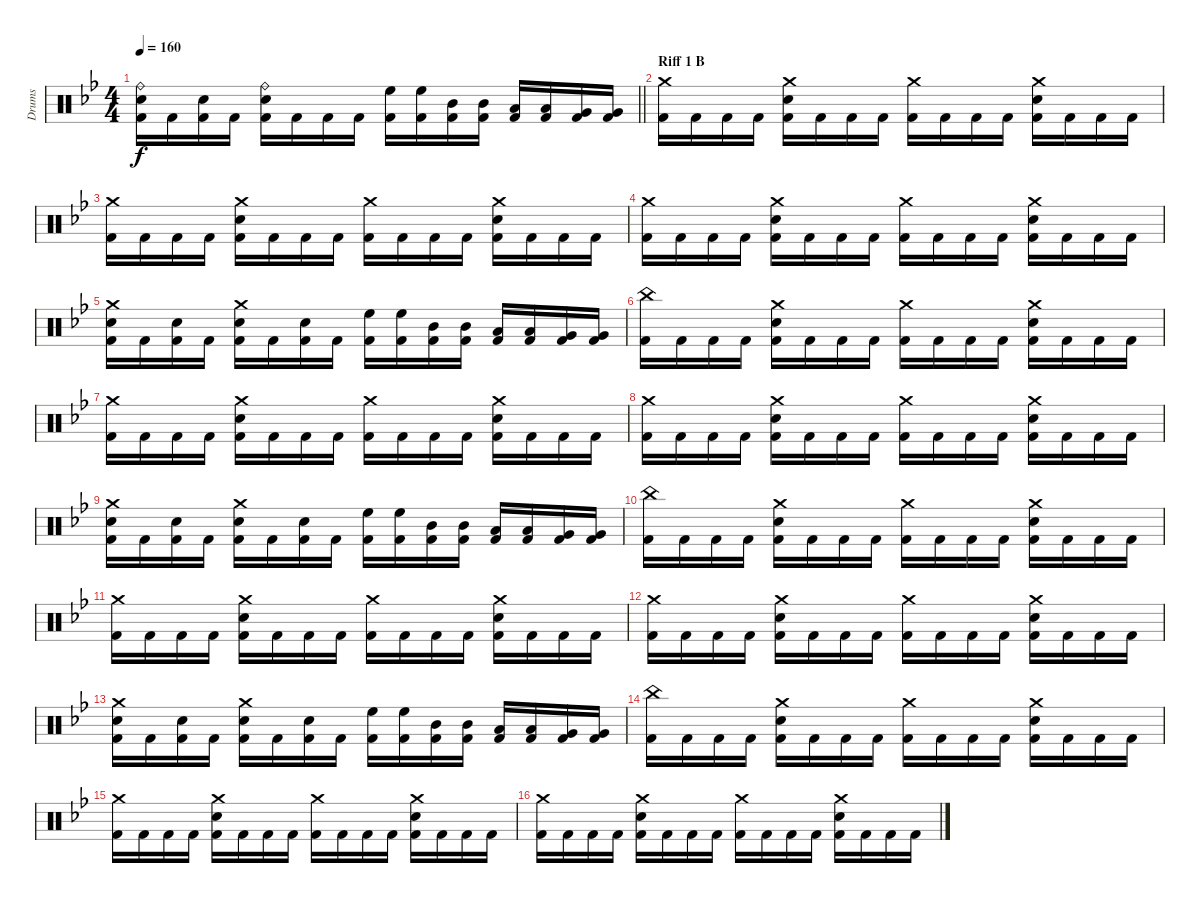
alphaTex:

\track ("Drums" "Drums") {instrument percussion}
\staff {score}
\articulation defaults
\ts (4 4)
\tempo 160
\clef neutral
\barLineRight lightlight
\ks bb
("Ride (bell)" "Electric Snare (hit)" "Kick (hit) 2").16{dy f} "Kick (hit) 2".16 ("Electric Snare (hit)" "Kick (hit) 2").16 "Kick (hit) 2".16 ("Ride (bell)" "Electric Snare (hit)" "Kick (hit) 2").16 "Kick (hit) 2".16 "Kick (hit) 2".16 "Kick (hit) 2".16 ("High Floor Tom (hit)" "Kick (hit) 2").16 ("High Floor Tom (hit)" "Kick (hit) 2").16 ("Mid Tom (hit)" "Kick (hit) 2").16 ("Mid Tom (hit)" "Kick (hit) 2").16 ("Low Tom (hit)" "Kick (hit) 2").16 ("Low Tom (hit)" "Kick (hit) 2").16 ("Very Low Tom (hit)" "Kick (hit) 2").16 ("Very Low Tom (hit)" "Kick (hit) 2").16 |
\section ("" "Riff 1 B")
("Crash medium (hit)" "Kick (hit) 2").16 "Kick (hit) 2".16 "Kick (hit) 2".16 "Kick (hit) 2".16 ("Crash medium (hit)" "Electric Snare (hit)" "Kick (hit) 2").16 "Kick (hit) 2".16 "Kick (hit) 2".16 "Kick (hit) 2".16 ("Crash medium (hit)" "Kick (hit) 2").16 "Kick (hit) 2".16 "Kick (hit) 2".16 "Kick (hit) 2".16 ("Crash medium (hit)" "Electric Snare (hit)" "Kick (hit) 2").16 "Kick (hit) 2".16 "Kick (hit) 2".16 "Kick (hit) 2".16 |
("Crash medium (hit)" "Kick (hit) 2").16 "Kick (hit) 2".16 "Kick (hit) 2".16 "Kick (hit) 2".16 ("Crash medium (hit)" "Electric Snare (hit)" "Kick (hit) 2").16 "Kick (hit) 2".16 "Kick (hit) 2".16 "Kick (hit) 2".16 ("Crash medium (hit)" "Kick (hit) 2").16 "Kick (hit) 2".16 "Kick (hit) 2".16 "Kick (hit) 2".16 ("Crash medium (hit)" "Electric Snare (hit)" "Kick (hit) 2").16 "Kick (hit) 2".16 "Kick (hit) 2".16 "Kick (hit) 2".16 |
("Crash medium (hit)" "Kick (hit) 2").16 "Kick (hit) 2".16 "Kick (hit) 2".16 "Kick (hit) 2".16 ("Crash medium (hit)" "Electric Snare (hit)" "Kick (hit) 2").16 "Kick (hit) 2".16 "Kick (hit) 2".16 "Kick (hit) 2".16 ("Crash medium (hit)" "Kick (hit) 2").16 "Kick (hit) 2".16 "Kick (hit) 2".16 "Kick (hit) 2".16 ("Crash medium (hit)" "Electric Snare (hit)" "Kick (hit) 2").16 "Kick (hit) 2".16 "Kick (hit) 2".16 "Kick (hit) 2".16 |
("Crash medium (hit)" "Electric Snare (hit)" "Kick (hit) 2").16 "Kick (hit) 2".16 ("Electric Snare (hit)" "Kick (hit) 2").16 "Kick (hit) 2".16 ("Crash medium (hit)" "Electric Snare (hit)" "Kick (hit) 2").16 "Kick (hit) 2".16 ("Electric Snare (hit)" "Kick (hit) 2").16 "Kick (hit) 2".16 ("High Floor Tom (hit)" "Kick (hit) 2").16 ("High Floor Tom (hit)" "Kick (hit) 2").16 ("Mid Tom (hit)" "Kick (hit) 2").16 ("Mid Tom (hit)" "Kick (hit) 2").16 ("Low Tom (hit)" "Kick (hit) 2").16 ("Low Tom (hit)" "Kick (hit) 2").16 ("Very Low Tom (hit)" "Kick (hit) 2").16 ("Very Low Tom (hit)" "Kick (hit) 2").16 |
("China (hit)" "Kick (hit) 2").16 "Kick (hit) 2".16 "Kick (hit) 2".16 "Kick (hit) 2".16 ("Crash medium (hit)" "Electric Snare (hit)" "Kick (hit) 2").16 "Kick (hit) 2".16 "Kick (hit) 2".16 "Kick (hit) 2".16 ("Crash medium (hit)" "Kick (hit) 2").16 "Kick (hit) 2".16 "Kick (hit) 2".16 "Kick (hit) 2".16 ("Crash medium (hit)" "Electric Snare (hit)" "Kick (hit) 2").16 "Kick (hit) 2".16 "Kick (hit) 2".16 "Kick (hit) 2".16 |
("Crash medium (hit)" "Kick (hit) 2").16 "Kick (hit) 2".16 "Kick (hit) 2".16 "Kick (hit) 2".16 ("Crash medium (hit)" "Electric Snare (hit)" "Kick (hit) 2").16 "Kick (hit) 2".16 "Kick (hit) 2".16 "Kick (hit) 2".16 ("Crash medium (hit)" "Kick (hit) 2").16 "Kick (hit) 2".16 "Kick (hit) 2".16 "Kick (hit) 2".16 ("Crash medium (hit)" "Electric Snare (hit)" "Kick (hit) 2").16 "Kick (hit) 2".16 "Kick (hit) 2".16 "Kick (hit) 2".16 |
("Crash medium (hit)" "Kick (hit) 2").16 "Kick (hit) 2".16 "Kick (hit) 2".16 "Kick (hit) 2".16 ("Crash medium (hit)" "Electric Snare (hit)" "Kick (hit) 2").16 "Kick (hit) 2".16 "Kick (hit) 2".16 "Kick (hit) 2".16 ("Crash medium (hit)" "Kick (hit) 2").16 "Kick (hit) 2".16 "Kick (hit) 2".16 "Kick (hit) 2".16 ("Crash medium (hit)" "Electric Snare (hit)" "Kick (hit) 2").16 "Kick (hit) 2".16 "Kick (hit) 2".16 "Kick (hit) 2".16 |
("Crash medium (hit)" "Electric Snare (hit)" "Kick (hit) 2").16 "Kick (hit) 2".16 ("Electric Snare (hit)" "Kick (hit) 2").16 "Kick (hit) 2".16 ("Crash medium (hit)" "Electric Snare (hit)" "Kick (hit) 2").16 "Kick (hit) 2".16 ("Electric Snare (hit)" "Kick (hit) 2").16 "Kick (hit) 2".16 ("High Floor Tom (hit)" "Kick (hit) 2").16 ("High Floor Tom (hit)" "Kick (hit) 2").16 ("Mid Tom (hit)" "Kick (hit) 2").16 ("Mid Tom (hit)" "Kick (hit) 2").16 ("Low Tom (hit)" "Kick (hit) 2").16 ("Low Tom (hit)" "Kick (hit) 2").16 ("Very Low Tom (hit)" "Kick (hit) 2").16 ("Very Low Tom (hit)" "Kick (hit) 2").16 |
("China (hit)" "Kick (hit) 2").16 "Kick (hit) 2".16 "Kick (hit) 2".16 "Kick (hit) 2".16 ("Crash medium (hit)" "Electric Snare (hit)" "Kick (hit) 2").16 "Kick (hit) 2".16 "Kick (hit) 2".16 "Kick (hit) 2".16 ("Crash medium (hit)" "Kick (hit) 2").16 "Kick (hit) 2".16 "Kick (hit) 2".16 "Kick (hit) 2".16 ("Crash medium (hit)" "Electric Snare (hit)" "Kick (hit) 2").16 "Kick (hit) 2".16 "Kick (hit) 2".16 "Kick (hit) 2".16 |
("Crash medium (hit)" "Kick (hit) 2").16 "Kick (hit) 2".16 "Kick (hit) 2".16 "Kick (hit) 2".16 ("Crash medium (hit)" "Electric Snare (hit)" "Kick (hit) 2").16 "Kick (hit) 2".16 "Kick (hit) 2".16 "Kick (hit) 2".16 ("Crash medium (hit)" "Kick (hit) 2").16 "Kick (hit) 2".16 "Kick (hit) 2".16 "Kick (hit) 2".16 ("Crash medium (hit)" "Electric Snare (hit)" "Kick (hit) 2").16 "Kick (hit) 2".16 "Kick (hit) 2".16 "Kick (hit) 2".16 |
("Crash medium (hit)" "Kick (hit) 2").16 "Kick (hit) 2".16 "Kick (hit) 2".16 "Kick (hit) 2".16 ("Crash medium (hit)" "Electric Snare (hit)" "Kick (hit) 2").16 "Kick (hit) 2".16 "Kick (hit) 2".16 "Kick (hit) 2".16 ("Crash medium (hit)" "Kick (hit) 2").16 "Kick (hit) 2".16 "Kick (hit) 2".16 "Kick (hit) 2".16 ("Crash medium (hit)" "Electric Snare (hit)" "Kick (hit) 2").16 "Kick (hit) 2".16 "Kick (hit) 2".16 "Kick (hit) 2".16 |
("Crash medium (hit)" "Electric Snare (hit)" "Kick (hit) 2").16 "Kick (hit) 2".16 ("Electric Snare (hit)" "Kick (hit) 2").16 "Kick (hit) 2".16 ("Crash medium (hit)" "Electric Snare (hit)" "Kick (hit) 2").16 "Kick (hit) 2".16 ("Electric Snare (hit)" "Kick (hit) 2").16 "Kick (hit) 2".16 ("High Floor Tom (hit)" "Kick (hit) 2").16 ("High Floor Tom (hit)" "Kick (hit) 2").16 ("Mid Tom (hit)" "Kick (hit) 2").16 ("Mid Tom (hit)" "Kick (hit) 2").16 ("Low Tom (hit)" "Kick (hit) 2").16 ("Low Tom (hit)" "Kick (hit) 2").16 ("Very Low Tom (hit)" "Kick (hit) 2").16 ("Very Low Tom (hit)" "Kick (hit) 2").16 |
("China (hit)" "Kick (hit) 2").16 "Kick (hit) 2".16 "Kick (hit) 2".16 "Kick (hit) 2".16 ("Crash medium (hit)" "Electric Snare (hit)" "Kick (hit) 2").16 "Kick (hit) 2".16 "Kick (hit) 2".16 "Kick (hit) 2".16 ("Crash medium (hit)" "Kick (hit) 2").16 "Kick (hit) 2".16 "Kick (hit) 2".16 "Kick (hit) 2".16 ("Crash medium (hit)" "Electric Snare (hit)" "Kick (hit) 2").16 "Kick (hit) 2".16 "Kick (hit) 2".16 "Kick (hit) 2".16 |
("Crash medium (hit)" "Kick (hit) 2").16 "Kick (hit) 2".16 "Kick (hit) 2".16 "Kick (hit) 2".16 ("Crash medium (hit)" "Electric Snare (hit)" "Kick (hit) 2").16 "Kick (hit) 2".16 "Kick (hit) 2".16 "Kick (hit) 2".16 ("Crash medium (hit)" "Kick (hit) 2").16 "Kick (hit) 2".16 "Kick (hit) 2".16 "Kick (hit) 2".16 ("Crash medium (hit)" "Electric Snare (hit)" "Kick (hit) 2").16 "Kick (hit) 2".16 "Kick (hit) 2".16 "Kick (hit) 2".16 |
("Crash medium (hit)" "Kick (hit) 2").16 "Kick (hit) 2".16 "Kick (hit) 2".16 "Kick (hit) 2".16 ("Crash medium (hit)" "Electric Snare (hit)" "Kick (hit) 2").16 "Kick (hit) 2".16 "Kick (hit) 2".16 "Kick (hit) 2".16 ("Crash medium (hit)" "Kick (hit) 2").16 "Kick (hit) 2".16 "Kick (hit) 2".16 "Kick (hit) 2".16 ("Crash medium (hit)" "Electric Snare (hit)" "Kick (hit) 2").16 "Kick (hit) 2".16 "Kick (hit) 2".16 "Kick (hit) 2".16
